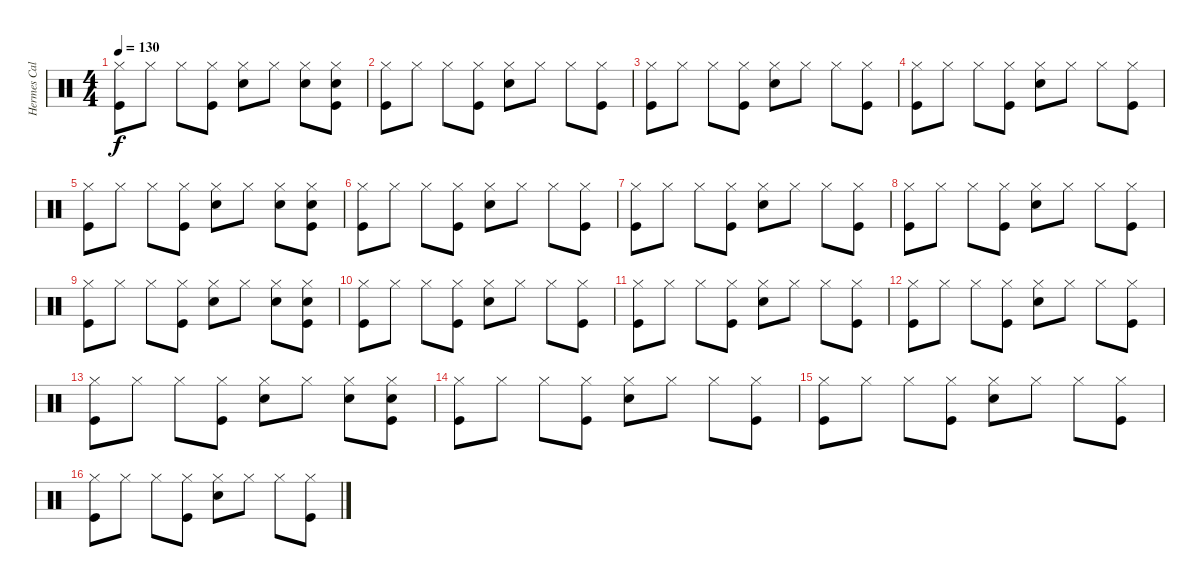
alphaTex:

\track ("Hermes Calabria" "Hermes Cal") {instrument percussion}
\staff {score}
\articulation defaults
\ts (4 4)
\tempo 130
\clef neutral
\ks c
("Hi-Hat (closed)" "Kick (hit)").8{dy f} "Hi-Hat (closed)".8 "Hi-Hat (closed)".8 ("Hi-Hat (closed)" "Kick (hit)").8 ("Hi-Hat (closed)" "Snare (hit) 2").8 "Hi-Hat (closed)".8 ("Hi-Hat (closed)" "Snare (hit) 2").8 ("Hi-Hat (closed)" "Snare (hit) 2" "Kick (hit)").8 |
("Hi-Hat (closed)" "Kick (hit)").8 "Hi-Hat (closed)".8 "Hi-Hat (closed)".8 ("Hi-Hat (closed)" "Kick (hit)").8 ("Hi-Hat (closed)" "Snare (hit) 2").8 "Hi-Hat (closed)".8 "Hi-Hat (closed)".8 ("Hi-Hat (closed)" "Kick (hit)").8 |
("Hi-Hat (closed)" "Kick (hit)").8 "Hi-Hat (closed)".8 "Hi-Hat (closed)".8 ("Hi-Hat (closed)" "Kick (hit)").8 ("Hi-Hat (closed)" "Snare (hit) 2").8 "Hi-Hat (closed)".8 "Hi-Hat (closed)".8 ("Hi-Hat (closed)" "Kick (hit)").8 |
("Hi-Hat (closed)" "Kick (hit)").8 "Hi-Hat (closed)".8 "Hi-Hat (closed)".8 ("Hi-Hat (closed)" "Kick (hit)").8 ("Hi-Hat (closed)" "Snare (hit) 2").8 "Hi-Hat (closed)".8 "Hi-Hat (closed)".8 ("Hi-Hat (closed)" "Kick (hit)").8 |
("Hi-Hat (closed)" "Kick (hit)").8 "Hi-Hat (closed)".8 "Hi-Hat (closed)".8 ("Hi-Hat (closed)" "Kick (hit)").8 ("Hi-Hat (closed)" "Snare (hit) 2").8 "Hi-Hat (closed)".8 ("Hi-Hat (closed)" "Snare (hit) 2").8 ("Hi-Hat (closed)" "Snare (hit) 2" "Kick (hit)").8 |
("Hi-Hat (closed)" "Kick (hit)").8 "Hi-Hat (closed)".8 "Hi-Hat (closed)".8 ("Hi-Hat (closed)" "Kick (hit)").8 ("Hi-Hat (closed)" "Snare (hit) 2").8 "Hi-Hat (closed)".8 "Hi-Hat (closed)".8 ("Hi-Hat (closed)" "Kick (hit)").8 |
("Hi-Hat (closed)" "Kick (hit)").8 "Hi-Hat (closed)".8 "Hi-Hat (closed)".8 ("Hi-Hat (closed)" "Kick (hit)").8 ("Hi-Hat (closed)" "Snare (hit) 2").8 "Hi-Hat (closed)".8 "Hi-Hat (closed)".8 ("Hi-Hat (closed)" "Kick (hit)").8 |
("Hi-Hat (closed)" "Kick (hit)").8 "Hi-Hat (closed)".8 "Hi-Hat (closed)".8 ("Hi-Hat (closed)" "Kick (hit)").8 ("Hi-Hat (closed)" "Snare (hit) 2").8 "Hi-Hat (closed)".8 "Hi-Hat (closed)".8 ("Hi-Hat (closed)" "Kick (hit)").8 |
("Hi-Hat (closed)" "Kick (hit)").8 "Hi-Hat (closed)".8 "Hi-Hat (closed)".8 ("Hi-Hat (closed)" "Kick (hit)").8 ("Hi-Hat (closed)" "Snare (hit) 2").8 "Hi-Hat (closed)".8 ("Hi-Hat (closed)" "Snare (hit) 2").8 ("Hi-Hat (closed)" "Snare (hit) 2" "Kick (hit)").8 |
("Hi-Hat (closed)" "Kick (hit)").8 "Hi-Hat (closed)".8 "Hi-Hat (closed)".8 ("Hi-Hat (closed)" "Kick (hit)").8 ("Hi-Hat (closed)" "Snare (hit) 2").8 "Hi-Hat (closed)".8 "Hi-Hat (closed)".8 ("Hi-Hat (closed)" "Kick (hit)").8 |
("Hi-Hat (closed)" "Kick (hit)").8 "Hi-Hat (closed)".8 "Hi-Hat (closed)".8 ("Hi-Hat (closed)" "Kick (hit)").8 ("Hi-Hat (closed)" "Snare (hit) 2").8 "Hi-Hat (closed)".8 "Hi-Hat (closed)".8 ("Hi-Hat (closed)" "Kick (hit)").8 |
("Hi-Hat (closed)" "Kick (hit)").8 "Hi-Hat (closed)".8 "Hi-Hat (closed)".8 ("Hi-Hat (closed)" "Kick (hit)").8 ("Hi-Hat (closed)" "Snare (hit) 2").8 "Hi-Hat (closed)".8 "Hi-Hat (closed)".8 ("Hi-Hat (closed)" "Kick (hit)").8 |
("Hi-Hat (closed)" "Kick (hit)").8 "Hi-Hat (closed)".8 "Hi-Hat (closed)".8 ("Hi-Hat (closed)" "Kick (hit)").8 ("Hi-Hat (closed)" "Snare (hit) 2").8 "Hi-Hat (closed)".8 ("Hi-Hat (closed)" "Snare (hit) 2").8 ("Hi-Hat (closed)" "Snare (hit) 2" "Kick (hit)").8 |
("Hi-Hat (closed)" "Kick (hit)").8 "Hi-Hat (closed)".8 "Hi-Hat (closed)".8 ("Hi-Hat (closed)" "Kick (hit)").8 ("Hi-Hat (closed)" "Snare (hit) 2").8 "Hi-Hat (closed)".8 "Hi-Hat (closed)".8 ("Hi-Hat (closed)" "Kick (hit)").8 |
("Hi-Hat (closed)" "Kick (hit)").8 "Hi-Hat (closed)".8 "Hi-Hat (closed)".8 ("Hi-Hat (closed)" "Kick (hit)").8 ("Hi-Hat (closed)" "Snare (hit) 2").8 "Hi-Hat (closed)".8 "Hi-Hat (closed)".8 ("Hi-Hat (closed)" "Kick (hit)").8 |
("Hi-Hat (closed)" "Kick (hit)").8 "Hi-Hat (closed)".8 "Hi-Hat (closed)".8 ("Hi-Hat (closed)" "Kick (hit)").8 ("Hi-Hat (closed)" "Snare (hit) 2").8 "Hi-Hat (closed)".8 "Hi-Hat (closed)".8 ("Hi-Hat (closed)" "Kick (hit)").8
